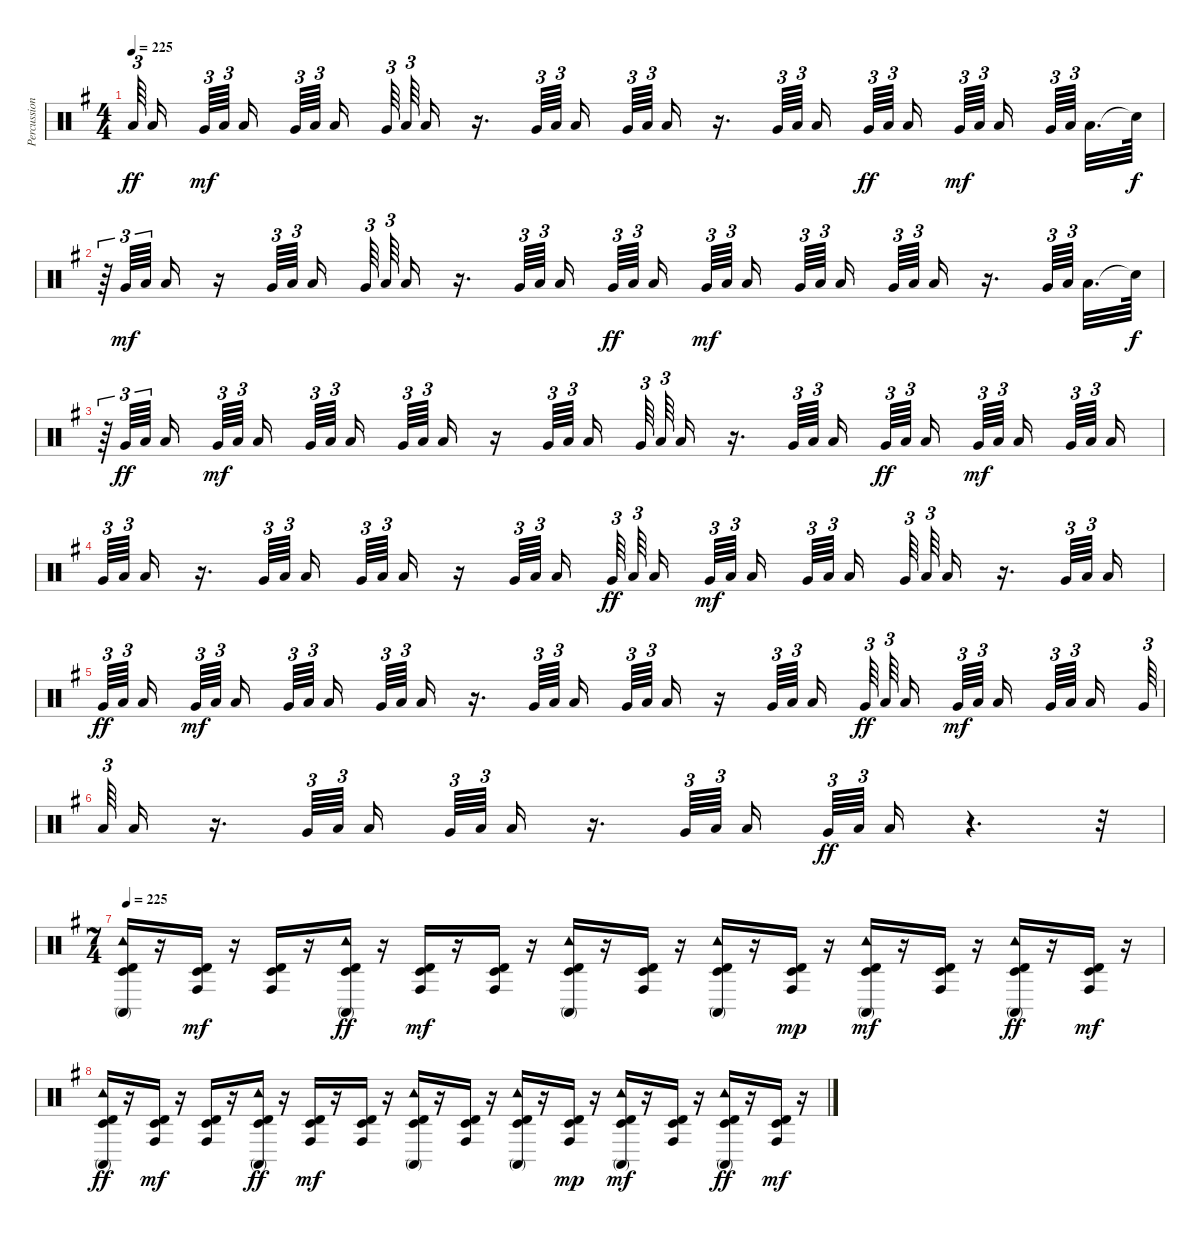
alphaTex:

\track ("Percussion" "Percussion") {instrument percussion}
\staff {score}
\articulation defaults
\ts (4 4)
\tempo 225
\clef neutral
\ks g "Low Floor Tom (hit)".64{tu (3 2) dy ff beam splitsecondary} "Low Tom (hit)".16{beam splitsecondary} "Very Low Tom (hit)".64{tu (3 2) dy mf} "Low Floor Tom (hit)".64{tu (3 2) beam splitsecondary} "Low Tom (hit)".16{beam splitsecondary} "Very Low Tom (hit)".64{tu (3 2)} "Low Floor Tom (hit)".64{tu (3 2) beam splitsecondary} "Low Tom (hit)".16 "Very Low Tom (hit)".64{tu (3 2)} "Low Floor Tom (hit)".64{tu (3 2)} "Low Tom (hit)".16
r.16{d} "Very Low Tom (hit)".64{tu (3 2)} "Low Floor Tom (hit)".64{tu (3 2) beam splitsecondary} "Low Tom (hit)".16 "Very Low Tom (hit)".64{tu (3 2)} "Low Floor Tom (hit)".64{tu (3 2) beam splitsecondary} "Low Tom (hit)".16 r.16{d} "Very Low Tom (hit)".64{tu (3 2)} "Low Floor Tom (hit)".64{tu (3 2) beam splitsecondary} "Low Tom (hit)".16 "Very Low Tom (hit)".64{tu (3 2) dy ff} "Low Floor Tom (hit)".64{tu (3 2) beam splitsecondary} "Low Tom (hit)".16{beam splitsecondary} "Very Low Tom (hit)".64{tu (3 2) dy mf} "Low Floor Tom (hit)".64{tu (3 2) beam splitsecondary} "Low Tom (hit)".16{beam splitsecondary} "Very Low Tom (hit)".64{tu (3 2)} "Low Floor Tom (hit)".64{tu (3 2) beam splitsecondary} "Low Tom (hit)".32{d} "Snare (hit)"{t}.64{dy f} |
r.64{tu (3 2)} "Very Low Tom (hit)".64{tu (3 2) dy mf} "Low Floor Tom (hit)".64{tu (3 2) beam splitsecondary} "Low Tom (hit)".16 r.16 "Very Low Tom (hit)".64{tu (3 2)} "Low Floor Tom (hit)".64{tu (3 2) beam splitsecondary} "Low Tom (hit)".16 "Very Low Tom (hit)".64{tu (3 2)} "Low Floor Tom (hit)".64{tu (3 2)} "Low Tom (hit)".16 r.16{d} "Very Low Tom (hit)".64{tu (3 2)} "Low Floor Tom (hit)".64{tu (3 2) beam splitsecondary} "Low Tom (hit)".16 "Very Low Tom (hit)".64{tu (3 2) dy ff} "Low Floor Tom (hit)".64{tu (3 2) beam splitsecondary} "Low Tom (hit)".16{beam splitsecondary} "Very Low Tom (hit)".64{tu (3 2) dy mf} "Low Floor Tom (hit)".64{tu (3 2) beam splitsecondary} "Low Tom (hit)".16{beam splitsecondary} "Very Low Tom (hit)".64{tu (3 2)} "Low Floor Tom (hit)".64{tu (3 2) beam splitsecondary} "Low Tom (hit)".16 "Very Low Tom (hit)".64{tu (3 2)} "Low Floor Tom (hit)".64{tu (3 2) beam splitsecondary} "Low Tom (hit)".16 r.16{d} "Very Low Tom (hit)".64{tu (3 2)} "Low Floor Tom (hit)".64{tu (3 2) beam splitsecondary} "Low Tom (hit)".32{d} "Snare (hit)"{t}.64{dy f} |
r.64{tu (3 2)} "Very Low Tom (hit)".64{tu (3 2) dy ff} "Low Floor Tom (hit)".64{tu (3 2) beam splitsecondary} "Low Tom (hit)".16{beam splitsecondary} "Very Low Tom (hit)".64{tu (3 2) dy mf} "Low Floor Tom (hit)".64{tu (3 2) beam splitsecondary} "Low Tom (hit)".16{beam splitsecondary} "Very Low Tom (hit)".64{tu (3 2)} "Low Floor Tom (hit)".64{tu (3 2) beam splitsecondary} "Low Tom (hit)".16 "Very Low Tom (hit)".64{tu (3 2)} "Low Floor Tom (hit)".64{tu (3 2) beam splitsecondary} "Low Tom (hit)".16 r.16 "Very Low Tom (hit)".64{tu (3 2)} "Low Floor Tom (hit)".64{tu (3 2) beam splitsecondary} "Low Tom (hit)".16 "Very Low Tom (hit)".64{tu (3 2)} "Low Floor Tom (hit)".64{tu (3 2)} "Low Tom (hit)".16 r.16{d} "Very Low Tom (hit)".64{tu (3 2)} "Low Floor Tom (hit)".64{tu (3 2) beam splitsecondary} "Low Tom (hit)".16 "Very Low Tom (hit)".64{tu (3 2) dy ff} "Low Floor Tom (hit)".64{tu (3 2) beam splitsecondary} "Low Tom (hit)".16{beam splitsecondary} "Very Low Tom (hit)".64{tu (3 2) dy mf} "Low Floor Tom (hit)".64{tu (3 2) beam splitsecondary} "Low Tom (hit)".16{beam splitsecondary} "Very Low Tom (hit)".64{tu (3 2)} "Low Floor Tom (hit)".64{tu (3 2) beam splitsecondary} "Low Tom (hit)".16 |
"Very Low Tom (hit)".64{tu (3 2)} "Low Floor Tom (hit)".64{tu (3 2) beam splitsecondary} "Low Tom (hit)".16 r.16{d} "Very Low Tom (hit)".64{tu (3 2)} "Low Floor Tom (hit)".64{tu (3 2) beam splitsecondary} "Low Tom (hit)".16 "Very Low Tom (hit)".64{tu (3 2)} "Low Floor Tom (hit)".64{tu (3 2) beam splitsecondary} "Low Tom (hit)".16 r.16 "Very Low Tom (hit)".64{tu (3 2)} "Low Floor Tom (hit)".64{tu (3 2) beam splitsecondary} "Low Tom (hit)".16 "Very Low Tom (hit)".64{tu (3 2) dy ff} "Low Floor Tom (hit)".64{tu (3 2) beam splitsecondary} "Low Tom (hit)".16{beam splitsecondary} "Very Low Tom (hit)".64{tu (3 2) dy mf} "Low Floor Tom (hit)".64{tu (3 2) beam splitsecondary} "Low Tom (hit)".16{beam splitsecondary} "Very Low Tom (hit)".64{tu (3 2)} "Low Floor Tom (hit)".64{tu (3 2) beam splitsecondary} "Low Tom (hit)".16 "Very Low Tom (hit)".64{tu (3 2)} "Low Floor Tom (hit)".64{tu (3 2)} "Low Tom (hit)".16 r.16{d} "Very Low Tom (hit)".64{tu (3 2)} "Low Floor Tom (hit)".64{tu (3 2) beam splitsecondary} "Low Tom (hit)".16 |
"Very Low Tom (hit)".64{tu (3 2) dy ff} "Low Floor Tom (hit)".64{tu (3 2) beam splitsecondary} "Low Tom (hit)".16{beam splitsecondary} "Very Low Tom (hit)".64{tu (3 2) dy mf} "Low Floor Tom (hit)".64{tu (3 2) beam splitsecondary} "Low Tom (hit)".16{beam splitsecondary} "Very Low Tom (hit)".64{tu (3 2)} "Low Floor Tom (hit)".64{tu (3 2) beam splitsecondary} "Low Tom (hit)".16 "Very Low Tom (hit)".64{tu (3 2)} "Low Floor Tom (hit)".64{tu (3 2) beam splitsecondary} "Low Tom (hit)".16 r.16{d} "Very Low Tom (hit)".64{tu (3 2)} "Low Floor Tom (hit)".64{tu (3 2) beam splitsecondary} "Low Tom (hit)".16 "Very Low Tom (hit)".64{tu (3 2)} "Low Floor Tom (hit)".64{tu (3 2) beam splitsecondary} "Low Tom (hit)".16 r.16 "Very Low Tom (hit)".64{tu (3 2)} "Low Floor Tom (hit)".64{tu (3 2) beam splitsecondary} "Low Tom (hit)".16 "Very Low Tom (hit)".64{tu (3 2) dy ff} "Low Floor Tom (hit)".64{tu (3 2) beam splitsecondary} "Low Tom (hit)".16{beam splitsecondary} "Very Low Tom (hit)".64{tu (3 2) dy mf} "Low Floor Tom (hit)".64{tu (3 2) beam splitsecondary} "Low Tom (hit)".16{beam splitsecondary} "Very Low Tom (hit)".64{tu (3 2)} "Low Floor Tom (hit)".64{tu (3 2) beam splitsecondary} "Low Tom (hit)".16 "Very Low Tom (hit)".64{tu (3 2)} |
"Low Floor Tom (hit)".64{tu (3 2)} "Low Tom (hit)".16 r.16{d} "Very Low Tom (hit)".64{tu (3 2)} "Low Floor Tom (hit)".64{tu (3 2) beam splitsecondary} "Low Tom (hit)".16 "Very Low Tom (hit)".64{tu (3 2)} "Low Floor Tom (hit)".64{tu (3 2) beam splitsecondary} "Low Tom (hit)".16 r.16{d} "Very Low Tom (hit)".64{tu (3 2)} "Low Floor Tom (hit)".64{tu (3 2) beam splitsecondary} "Low Tom (hit)".16 "Very Low Tom (hit)".64{tu (3 2) dy ff} "Low Floor Tom (hit)".64{tu (3 2) beam splitsecondary} "Low Tom (hit)".16 r.4{d} r.32 |
\ts (7 4)
\tempo 225
("Timbale high (hit)" "Timbale low (hit)" "Tambourine (hit)" "Conga high (mute)").16 r.16 ("Timbale low (hit)" "Timbale high (hit)" "Conga high (hit)").16{dy mf} r.16 ("Timbale high (hit)" "Conga high (hit)" "Timbale low (hit)").16 r.16 ("Tambourine (hit)" "Timbale high (hit)" "Timbale low (hit)" "Conga high (mute)").16{dy ff} r.16 ("Timbale low (hit)" "Conga high (hit)" "Timbale high (hit)").16{dy mf} r.16 ("Timbale low (hit)" "Timbale high (hit)" "Conga high (hit)").16 r.16 ("Tambourine (hit)" "Conga high (mute)" "Timbale high (hit)" "Timbale low (hit)").16 r.16 ("Conga high (hit)" "Timbale low (hit)" "Timbale high (hit)").16 r.16 ("Tambourine (hit)" "Timbale high (hit)" "Conga high (mute)" "Timbale low (hit)").16 r.16 ("Conga high (hit)" "Timbale high (hit)" "Timbale low (hit)").16{dy mp} r.16 ("Tambourine (hit)" "Conga high (mute)" "Timbale high (hit)" "Timbale low (hit)").16{dy mf} r.16 ("Timbale low (hit)" "Conga high (hit)" "Timbale high (hit)").16 r.16 ("Tambourine (hit)" "Conga high (mute)" "Timbale high (hit)" "Timbale low (hit)").16{dy ff} r.16 ("Conga high (hit)" "Timbale high (hit)" "Timbale low (hit)").16{dy mf} r.16 |
("Timbale high (hit)" "Timbale low (hit)" "Tambourine (hit)" "Conga high (mute)").16{dy ff} r.16 ("Timbale low (hit)" "Timbale high (hit)" "Conga high (hit)").16{dy mf} r.16 ("Timbale high (hit)" "Conga high (hit)" "Timbale low (hit)").16 r.16 ("Tambourine (hit)" "Timbale high (hit)" "Timbale low (hit)" "Conga high (mute)").16{dy ff} r.16 ("Timbale low (hit)" "Conga high (hit)" "Timbale high (hit)").16{dy mf} r.16 ("Timbale low (hit)" "Timbale high (hit)" "Conga high (hit)").16 r.16 ("Tambourine (hit)" "Conga high (mute)" "Timbale high (hit)" "Timbale low (hit)").16 r.16 ("Conga high (hit)" "Timbale low (hit)" "Timbale high (hit)").16 r.16 ("Tambourine (hit)" "Timbale high (hit)" "Conga high (mute)" "Timbale low (hit)").16 r.16 ("Conga high (hit)" "Timbale high (hit)" "Timbale low (hit)").16{dy mp} r.16 ("Tambourine (hit)" "Conga high (mute)" "Timbale high (hit)" "Timbale low (hit)").16{dy mf} r.16 ("Timbale low (hit)" "Conga high (hit)" "Timbale high (hit)").16 r.16 ("Tambourine (hit)" "Conga high (mute)" "Timbale high (hit)" "Timbale low (hit)").16{dy ff} r.16 ("Conga high (hit)" "Timbale high (hit)" "Timbale low (hit)").16{dy mf} r.16
